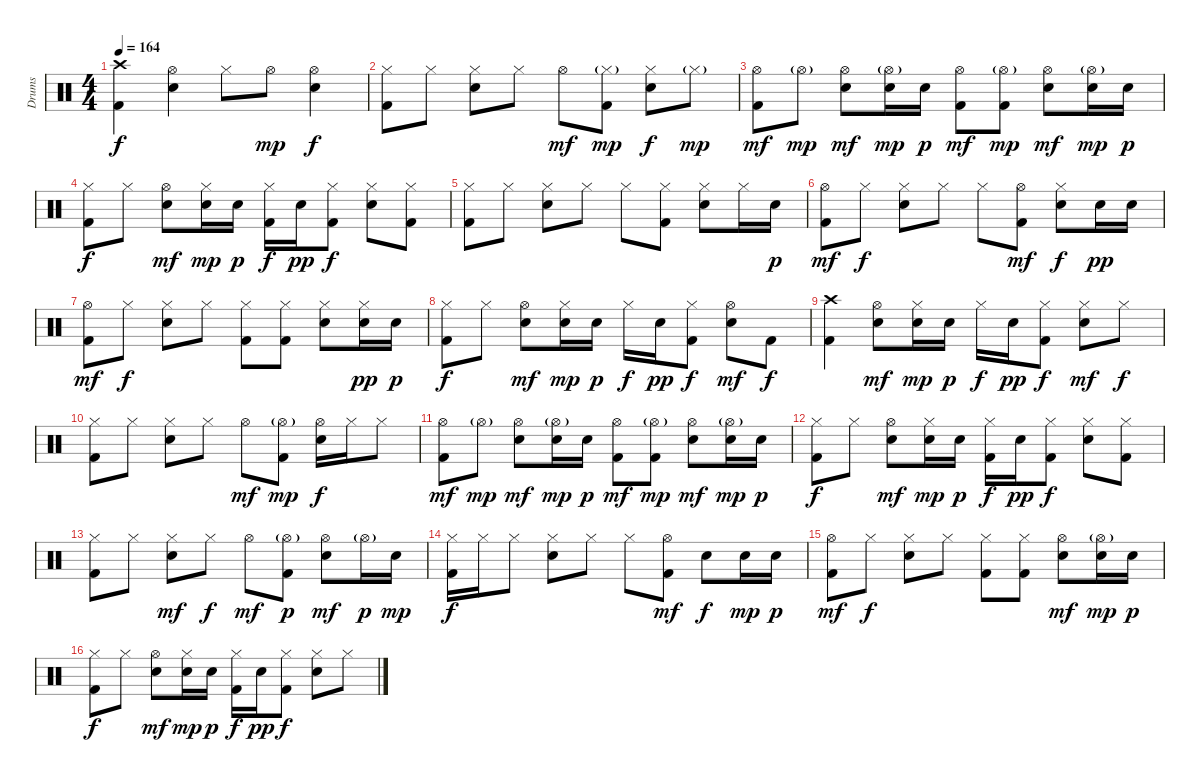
\track ("Drums" "Drums") {instrument percussion}
\staff {score}
\articulation defaults
\ts (4 4)
\section ("" "")
\tempo 164
\clef neutral
\ks c
("Crash high (hit)" "Kick (hit) 2").4{dy f} ("Hi-Hat (open)" "Electric Snare (hit)").4 "Hi-Hat (closed)".8 "Hi-Hat (open)".8{dy mp} ("Hi-Hat (open)" "Electric Snare (hit)").4{dy f} |
("Hi-Hat (closed)" "Kick (hit) 2").8 "Hi-Hat (closed)".8 ("Hi-Hat (closed)" "Electric Snare (hit)").8 "Hi-Hat (closed)".8 "Hi-Hat (open)".8{dy mf} ("Hi-Hat (closed)"{g} "Kick (hit) 2").8{dy mp} ("Hi-Hat (closed)" "Electric Snare (hit)").8{dy f} "Hi-Hat (closed)"{g}.8{dy mp} |
("Hi-Hat (open)" "Kick (hit) 2").8{dy mf} "Hi-Hat (open)"{g}.8{dy mp} ("Hi-Hat (open)" "Electric Snare (hit)").8{dy mf} ("Hi-Hat (open)"{g} "Electric Snare (hit)").16{dy mp} "Electric Snare (hit)".16{dy p} ("Hi-Hat (open)" "Kick (hit) 2").8{dy mf} ("Hi-Hat (open)"{g} "Kick (hit) 2").8{dy mp} ("Hi-Hat (open)" "Electric Snare (hit)").8{dy mf} ("Hi-Hat (open)"{g} "Electric Snare (hit)").16{dy mp} "Electric Snare (hit)".16{dy p} |
("Hi-Hat (closed)" "Kick (hit) 2").8{dy f} "Hi-Hat (closed)".8 ("Hi-Hat (open)" "Electric Snare (hit)").8{dy mf} ("Hi-Hat (closed)" "Electric Snare (hit)").16{dy mp} "Electric Snare (hit)".16{dy p} ("Hi-Hat (closed)" "Kick (hit) 2").16{dy f} "Electric Snare (hit)".16{dy pp} ("Hi-Hat (closed)" "Kick (hit) 2").8{dy f} ("Hi-Hat (closed)" "Electric Snare (hit)").8 ("Hi-Hat (closed)" "Kick (hit) 2").8 |
("Hi-Hat (closed)" "Kick (hit) 2").8 "Hi-Hat (closed)".8 ("Hi-Hat (closed)" "Electric Snare (hit)").8 "Hi-Hat (closed)".8 "Hi-Hat (closed)".8 ("Hi-Hat (closed)" "Kick (hit) 2").8 ("Hi-Hat (closed)" "Electric Snare (hit)").8 "Hi-Hat (closed)".16 "Electric Snare (hit)".16{dy p} |
("Hi-Hat (open)" "Kick (hit) 2").8{dy mf} "Hi-Hat (closed)".8{dy f} ("Hi-Hat (closed)" "Electric Snare (hit)").8 "Hi-Hat (closed)".8 "Hi-Hat (closed)".8 ("Hi-Hat (open)" "Kick (hit) 2").8{dy mf} ("Hi-Hat (closed)" "Electric Snare (hit)").8{dy f} "Electric Snare (hit)".16{dy pp} "Electric Snare (hit)".16 |
("Hi-Hat (open)" "Kick (hit) 2").8{dy mf} "Hi-Hat (closed)".8{dy f} ("Hi-Hat (closed)" "Electric Snare (hit)").8 "Hi-Hat (closed)".8 ("Hi-Hat (closed)" "Kick (hit) 2").8 ("Hi-Hat (closed)" "Kick (hit) 2").8 ("Hi-Hat (closed)" "Electric Snare (hit)").8 ("Hi-Hat (closed)" "Electric Snare (hit)").16{dy pp} "Electric Snare (hit)".16{dy p} |
("Hi-Hat (closed)" "Kick (hit) 2").8{dy f} "Hi-Hat (closed)".8 ("Hi-Hat (open)" "Electric Snare (hit)").8{dy mf} ("Hi-Hat (closed)" "Electric Snare (hit)").16{dy mp} "Electric Snare (hit)".16{dy p} "Hi-Hat (closed)".16{dy f} "Electric Snare (hit)".16{dy pp} ("Hi-Hat (closed)" "Kick (hit) 2").8{dy f} ("Hi-Hat (open)" "Electric Snare (hit)").8{dy mf} "Kick (hit) 2".8{dy f} |
("Crash high (hit)" "Kick (hit) 2").4 ("Hi-Hat (open)" "Electric Snare (hit)").8{dy mf} ("Hi-Hat (closed)" "Electric Snare (hit)").16{dy mp} "Electric Snare (hit)".16{dy p} "Hi-Hat (closed)".16{dy f} "Electric Snare (hit)".16{dy pp} ("Hi-Hat (closed)" "Kick (hit) 2").8{dy f} ("Hi-Hat (closed)" "Electric Snare (hit)").8{dy mf} "Hi-Hat (closed)".8{dy f} |
("Hi-Hat (closed)" "Kick (hit) 2").8 "Hi-Hat (closed)".8 ("Hi-Hat (closed)" "Electric Snare (hit)").8 "Hi-Hat (closed)".8 "Hi-Hat (open)".8{dy mf} ("Hi-Hat (open)"{g} "Kick (hit) 2").8{dy mp} ("Hi-Hat (open)" "Electric Snare (hit)").16{dy f} "Hi-Hat (closed)".16 "Hi-Hat (closed)".8 |
("Hi-Hat (open)" "Kick (hit) 2").8{dy mf} "Hi-Hat (open)"{g}.8{dy mp} ("Hi-Hat (open)" "Electric Snare (hit)").8{dy mf} ("Hi-Hat (open)"{g} "Electric Snare (hit)").16{dy mp} "Electric Snare (hit)".16{dy p} ("Hi-Hat (open)" "Kick (hit) 2").8{dy mf} ("Hi-Hat (open)"{g} "Kick (hit) 2").8{dy mp} ("Hi-Hat (open)" "Electric Snare (hit)").8{dy mf} ("Hi-Hat (open)"{g} "Electric Snare (hit)").16{dy mp} "Electric Snare (hit)".16{dy p} |
("Hi-Hat (closed)" "Kick (hit) 2").8{dy f} "Hi-Hat (closed)".8 ("Hi-Hat (open)" "Electric Snare (hit)").8{dy mf} ("Hi-Hat (closed)" "Electric Snare (hit)").16{dy mp} "Electric Snare (hit)".16{dy p} ("Hi-Hat (closed)" "Kick (hit) 2").16{dy f} "Electric Snare (hit)".16{dy pp} ("Hi-Hat (closed)" "Kick (hit) 2").8{dy f} ("Hi-Hat (closed)" "Electric Snare (hit)").8 ("Hi-Hat (closed)" "Kick (hit) 2").8 |
("Hi-Hat (closed)" "Kick (hit) 2").8 "Hi-Hat (closed)".8 ("Hi-Hat (closed)" "Electric Snare (hit)").8{dy mf} "Hi-Hat (closed)".8{dy f} "Hi-Hat (open)".8{dy mf} ("Hi-Hat (open)"{g} "Kick (hit) 2").8{dy p} ("Hi-Hat (open)" "Electric Snare (hit)").8{dy mf} "Hi-Hat (open)"{g}.16{dy p} "Electric Snare (hit)".16{dy mp} |
("Hi-Hat (closed)" "Kick (hit) 2").16{dy f} "Hi-Hat (closed)".16 "Hi-Hat (closed)".8 ("Hi-Hat (closed)" "Electric Snare (hit)").8 "Hi-Hat (closed)".8 "Hi-Hat (closed)".8 ("Hi-Hat (open)" "Kick (hit) 2").8{dy mf} "Electric Snare (hit)".8{dy f} "Electric Snare (hit)".16{dy mp} "Electric Snare (hit)".16{dy p} |
("Hi-Hat (open)" "Kick (hit) 2").8{dy mf} "Hi-Hat (closed)".8{dy f} ("Hi-Hat (closed)" "Electric Snare (hit)").8 "Hi-Hat (closed)".8 ("Hi-Hat (closed)" "Kick (hit) 2").8 ("Hi-Hat (closed)" "Kick (hit) 2").8 ("Hi-Hat (open)" "Electric Snare (hit)").8{dy mf} ("Hi-Hat (open)"{g} "Electric Snare (hit)").16{dy mp} "Electric Snare (hit)".16{dy p} |
("Hi-Hat (closed)" "Kick (hit) 2").8{dy f} "Hi-Hat (closed)".8 ("Hi-Hat (open)" "Electric Snare (hit)").8{dy mf} ("Hi-Hat (closed)" "Electric Snare (hit)").16{dy mp} "Electric Snare (hit)".16{dy p} ("Hi-Hat (closed)" "Kick (hit) 2").16{dy f} "Electric Snare (hit)".16{dy pp} ("Hi-Hat (closed)" "Kick (hit) 2").8{dy f} ("Hi-Hat (closed)" "Electric Snare (hit)").8 "Hi-Hat (closed)".8
